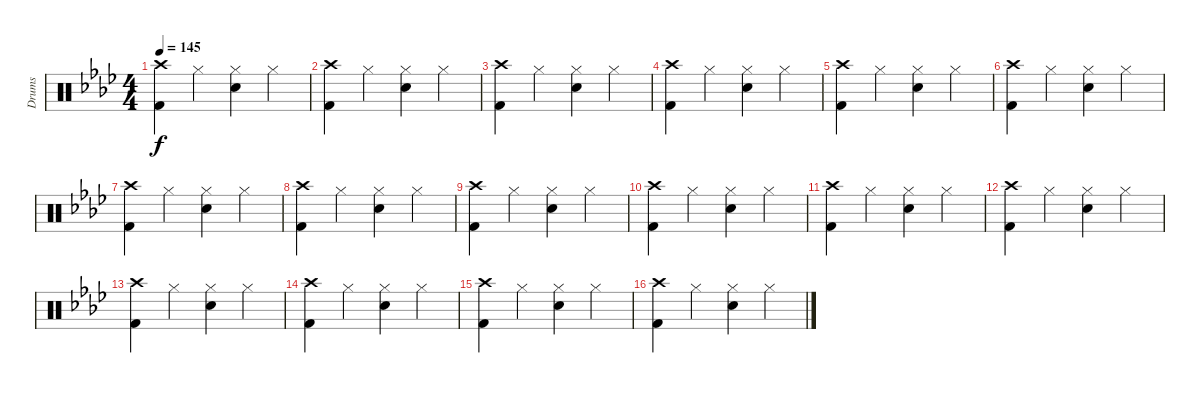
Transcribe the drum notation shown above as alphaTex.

\track ("Drums" "Drums") {instrument percussion}
\staff {score}
\articulation defaults
\ts (4 4)
\tempo 145
\clef neutral
\ks ab
("Crash high (hit)" "Kick (hit) 2").4{dy f} "Hi-Hat (closed)".4 ("Hi-Hat (closed)" "Electric Snare (hit)").4 "Hi-Hat (closed)".4 |
("Crash high (hit)" "Kick (hit) 2").4 "Hi-Hat (closed)".4 ("Hi-Hat (closed)" "Electric Snare (hit)").4 "Hi-Hat (closed)".4 |
("Crash high (hit)" "Kick (hit) 2").4 "Hi-Hat (closed)".4 ("Hi-Hat (closed)" "Electric Snare (hit)").4 "Hi-Hat (closed)".4 |
("Crash high (hit)" "Kick (hit) 2").4 "Hi-Hat (closed)".4 ("Hi-Hat (closed)" "Electric Snare (hit)").4 "Hi-Hat (closed)".4 |
("Crash high (hit)" "Kick (hit) 2").4 "Hi-Hat (closed)".4 ("Hi-Hat (closed)" "Electric Snare (hit)").4 "Hi-Hat (closed)".4 |
("Crash high (hit)" "Kick (hit) 2").4 "Hi-Hat (closed)".4 ("Hi-Hat (closed)" "Electric Snare (hit)").4 "Hi-Hat (closed)".4 |
("Crash high (hit)" "Kick (hit) 2").4 "Hi-Hat (closed)".4 ("Hi-Hat (closed)" "Electric Snare (hit)").4 "Hi-Hat (closed)".4 |
("Crash high (hit)" "Kick (hit) 2").4 "Hi-Hat (closed)".4 ("Hi-Hat (closed)" "Electric Snare (hit)").4 "Hi-Hat (closed)".4 |
("Crash high (hit)" "Kick (hit) 2").4 "Hi-Hat (closed)".4 ("Hi-Hat (closed)" "Electric Snare (hit)").4 "Hi-Hat (closed)".4 |
("Crash high (hit)" "Kick (hit) 2").4 "Hi-Hat (closed)".4 ("Hi-Hat (closed)" "Electric Snare (hit)").4 "Hi-Hat (closed)".4 |
("Crash high (hit)" "Kick (hit) 2").4 "Hi-Hat (closed)".4 ("Hi-Hat (closed)" "Electric Snare (hit)").4 "Hi-Hat (closed)".4 |
("Crash high (hit)" "Kick (hit) 2").4 "Hi-Hat (closed)".4 ("Hi-Hat (closed)" "Electric Snare (hit)").4 "Hi-Hat (closed)".4 |
("Crash high (hit)" "Kick (hit) 2").4 "Hi-Hat (closed)".4 ("Hi-Hat (closed)" "Electric Snare (hit)").4 "Hi-Hat (closed)".4 |
("Crash high (hit)" "Kick (hit) 2").4 "Hi-Hat (closed)".4 ("Hi-Hat (closed)" "Electric Snare (hit)").4 "Hi-Hat (closed)".4 |
("Crash high (hit)" "Kick (hit) 2").4 "Hi-Hat (closed)".4 ("Hi-Hat (closed)" "Electric Snare (hit)").4 "Hi-Hat (closed)".4 |
("Crash high (hit)" "Kick (hit) 2").4 "Hi-Hat (closed)".4 ("Hi-Hat (closed)" "Electric Snare (hit)").4 "Hi-Hat (closed)".4
